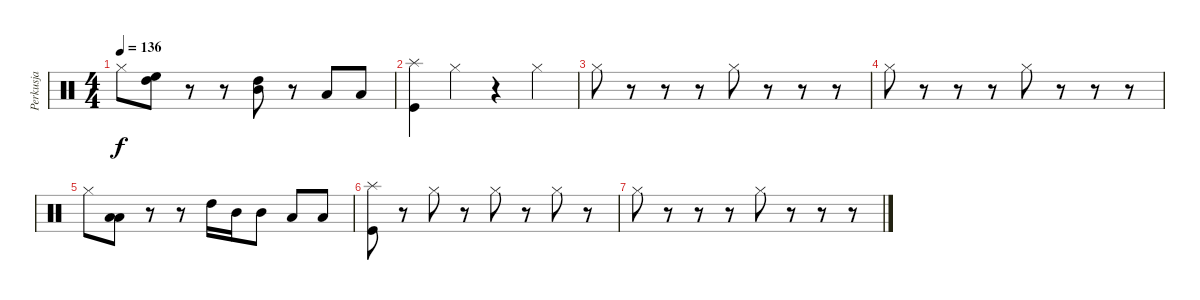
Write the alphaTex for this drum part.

\track ("Perkusja" "Perkusja") {instrument percussion}
\staff {score}
\articulation defaults
\ts (4 4)
\tempo 136
\clef neutral
\ks c "Hi-Hat (closed)".8{dy f}
("High Floor Tom (hit)" "High Tom (hit)").8{bd 480} r.8 r.8 ("High Tom (hit)" "Mid Tom (hit)").8 r.8 "Low Tom (hit)".8 "Low Tom (hit)".8 |
("Splash (hit)" "Kick (hit)").4 "Hi-Hat (closed)".4 r.4 "Hi-Hat (closed)".4 |
"Hi-Hat (closed)".8 r.8 r.8 r.8 "Hi-Hat (closed)".8 r.8 r.8 r.8 |
"Hi-Hat (closed)".8 r.8 r.8 r.8 "Hi-Hat (closed)".8 r.8 r.8 r.8 |
"Hi-Hat (closed)".8 ("Low Tom (hit)" "Low Floor Tom (hit)").8 r.8 r.8 "High Tom (hit)".16 "Mid Tom (hit)".16 "Mid Tom (hit)".8 "Low Tom (hit)".8 "Low Tom (hit)".8 |
("Splash (hit)" "Kick (hit)").8 r.8 "Hi-Hat (closed)".8 r.8 "Hi-Hat (closed)".8 r.8 "Hi-Hat (closed)".8 r.8 |
"Hi-Hat (closed)".8 r.8 r.8 r.8 "Hi-Hat (closed)".8 r.8 r.8 r.8
